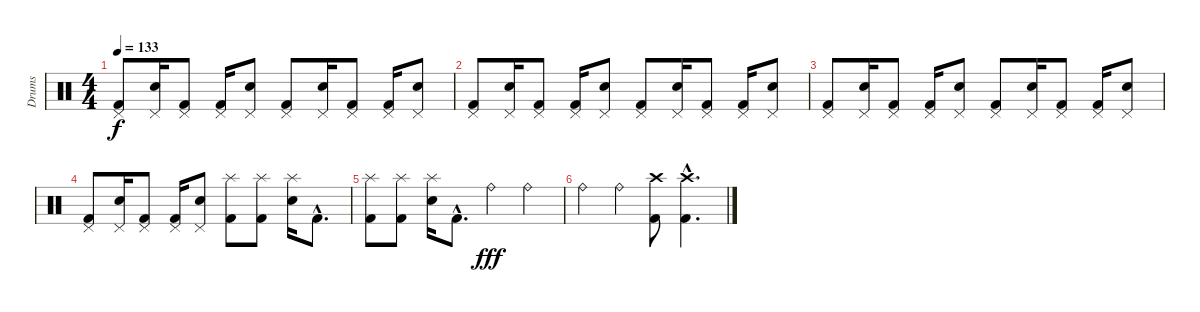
\track ("Drums" "Drums") {instrument percussion}
\staff {score}
\articulation defaults
\ts (4 4)
\tempo 133
\clef neutral
\ks c
("Pedal Hi-Hat (hit)" "Kick (hit) 2").8{dy f} ("Pedal Hi-Hat (hit)" "Electric Snare (hit)").16 ("Pedal Hi-Hat (hit)" "Kick (hit) 2").8 ("Pedal Hi-Hat (hit)" "Kick (hit) 2").16 ("Pedal Hi-Hat (hit)" "Electric Snare (hit)").8 ("Pedal Hi-Hat (hit)" "Kick (hit) 2").8 ("Pedal Hi-Hat (hit)" "Electric Snare (hit)").16 ("Pedal Hi-Hat (hit)" "Kick (hit) 2").8 ("Pedal Hi-Hat (hit)" "Kick (hit) 2").16 ("Pedal Hi-Hat (hit)" "Electric Snare (hit)").8 |
("Pedal Hi-Hat (hit)" "Kick (hit) 2").8 ("Pedal Hi-Hat (hit)" "Electric Snare (hit)").16 ("Pedal Hi-Hat (hit)" "Kick (hit) 2").8 ("Pedal Hi-Hat (hit)" "Kick (hit) 2").16 ("Pedal Hi-Hat (hit)" "Electric Snare (hit)").8 ("Pedal Hi-Hat (hit)" "Kick (hit) 2").8 ("Pedal Hi-Hat (hit)" "Electric Snare (hit)").16 ("Pedal Hi-Hat (hit)" "Kick (hit) 2").8 ("Pedal Hi-Hat (hit)" "Kick (hit) 2").16 ("Pedal Hi-Hat (hit)" "Electric Snare (hit)").8 |
("Pedal Hi-Hat (hit)" "Kick (hit) 2").8 ("Pedal Hi-Hat (hit)" "Electric Snare (hit)").16 ("Pedal Hi-Hat (hit)" "Kick (hit) 2").8 ("Pedal Hi-Hat (hit)" "Kick (hit) 2").16 ("Pedal Hi-Hat (hit)" "Electric Snare (hit)").8 ("Pedal Hi-Hat (hit)" "Kick (hit) 2").8 ("Pedal Hi-Hat (hit)" "Electric Snare (hit)").16 ("Pedal Hi-Hat (hit)" "Kick (hit) 2").8 ("Pedal Hi-Hat (hit)" "Kick (hit) 2").16 ("Pedal Hi-Hat (hit)" "Electric Snare (hit)").8 |
("Pedal Hi-Hat (hit)" "Kick (hit) 2").8 ("Pedal Hi-Hat (hit)" "Electric Snare (hit)").16 ("Pedal Hi-Hat (hit)" "Kick (hit) 2").8 ("Pedal Hi-Hat (hit)" "Kick (hit) 2").16 ("Pedal Hi-Hat (hit)" "Electric Snare (hit)").8 ("Splash (hit)" "Kick (hit) 2").8 ("Splash (hit)" "Kick (hit) 2").8 ("Splash (hit)" "Electric Snare (hit)").16 "Kick (hit) 2"{hac}.8{d} |
("Splash (hit)" "Kick (hit) 2").8 ("Splash (hit)" "Kick (hit) 2").8 ("Splash (hit)" "Electric Snare (hit)").16 "Kick (hit) 2"{hac}.8{d} "Ride (bell)".4{dy fff} "Ride (bell)".4 |
"Ride (bell)".4 "Ride (bell)".4 ("Crash high (hit)" "Kick (hit) 2").8 ("Crash high (hit)"{hac} "Kick (hit) 2"{hac}).4{d}
